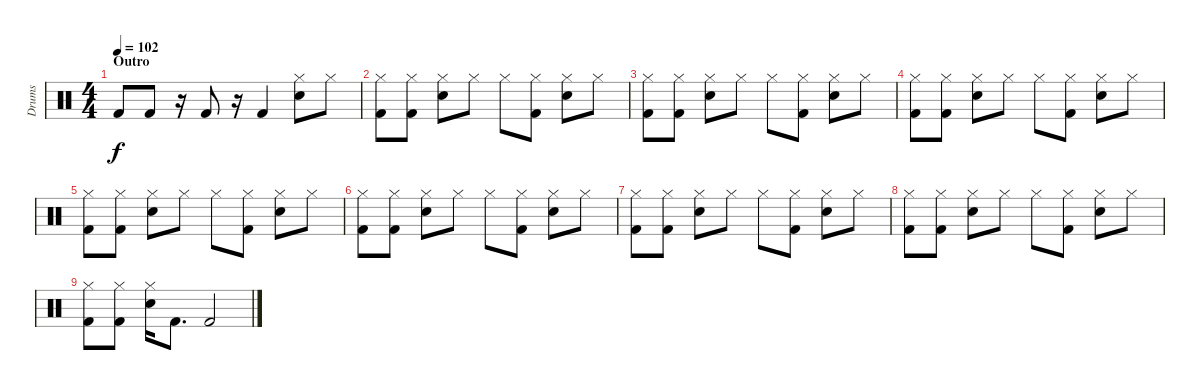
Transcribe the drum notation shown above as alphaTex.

\track ("Drums" "Drums") {instrument percussion}
\staff {score}
\articulation defaults
\ts (4 4)
\section ("" "Outro")
\tempo 102
\clef neutral
\ks c "Kick (hit) 2".8{dy f} "Kick (hit) 2".8
r.16 "Kick (hit) 2".8 r.16 "Kick (hit) 2".4 ("Hi-Hat (closed)" "Snare (hit) 2").8 "Hi-Hat (closed)".8 |
("Hi-Hat (closed)" "Kick (hit) 2").8 ("Hi-Hat (closed)" "Kick (hit) 2").8 ("Hi-Hat (closed)" "Snare (hit) 2").8 "Hi-Hat (closed)".8 "Hi-Hat (closed)".8 ("Hi-Hat (closed)" "Kick (hit) 2").8 ("Hi-Hat (closed)" "Snare (hit) 2").8 "Hi-Hat (closed)".8 |
("Hi-Hat (closed)" "Kick (hit) 2").8 ("Hi-Hat (closed)" "Kick (hit) 2").8 ("Hi-Hat (closed)" "Snare (hit) 2").8 "Hi-Hat (closed)".8 "Hi-Hat (closed)".8 ("Hi-Hat (closed)" "Kick (hit) 2").8 ("Hi-Hat (closed)" "Snare (hit) 2").8 "Hi-Hat (closed)".8 |
("Hi-Hat (closed)" "Kick (hit) 2").8 ("Hi-Hat (closed)" "Kick (hit) 2").8 ("Hi-Hat (closed)" "Snare (hit) 2").8 "Hi-Hat (closed)".8 "Hi-Hat (closed)".8 ("Hi-Hat (closed)" "Kick (hit) 2").8 ("Hi-Hat (closed)" "Snare (hit) 2").8 "Hi-Hat (closed)".8 |
("Hi-Hat (closed)" "Kick (hit) 2").8 ("Hi-Hat (closed)" "Kick (hit) 2").8 ("Hi-Hat (closed)" "Snare (hit) 2").8 "Hi-Hat (closed)".8 "Hi-Hat (closed)".8 ("Hi-Hat (closed)" "Kick (hit) 2").8 ("Hi-Hat (closed)" "Snare (hit) 2").8 "Hi-Hat (closed)".8 |
("Hi-Hat (closed)" "Kick (hit) 2").8 ("Hi-Hat (closed)" "Kick (hit) 2").8 ("Hi-Hat (closed)" "Snare (hit) 2").8 "Hi-Hat (closed)".8 "Hi-Hat (closed)".8 ("Hi-Hat (closed)" "Kick (hit) 2").8 ("Hi-Hat (closed)" "Snare (hit) 2").8 "Hi-Hat (closed)".8 |
("Hi-Hat (closed)" "Kick (hit) 2").8 ("Hi-Hat (closed)" "Kick (hit) 2").8 ("Hi-Hat (closed)" "Snare (hit) 2").8 "Hi-Hat (closed)".8 "Hi-Hat (closed)".8 ("Hi-Hat (closed)" "Kick (hit) 2").8 ("Hi-Hat (closed)" "Snare (hit) 2").8 "Hi-Hat (closed)".8 |
("Hi-Hat (closed)" "Kick (hit) 2").8 ("Hi-Hat (closed)" "Kick (hit) 2").8 ("Hi-Hat (closed)" "Snare (hit) 2").8 "Hi-Hat (closed)".8 "Hi-Hat (closed)".8 ("Hi-Hat (closed)" "Kick (hit) 2").8 ("Hi-Hat (closed)" "Snare (hit) 2").8 "Hi-Hat (closed)".8 |
("Hi-Hat (closed)" "Kick (hit) 2").8 ("Hi-Hat (closed)" "Kick (hit) 2").8 ("Hi-Hat (closed)" "Snare (hit) 2").16 "Kick (hit) 2".8{d} "Kick (hit) 2".2
